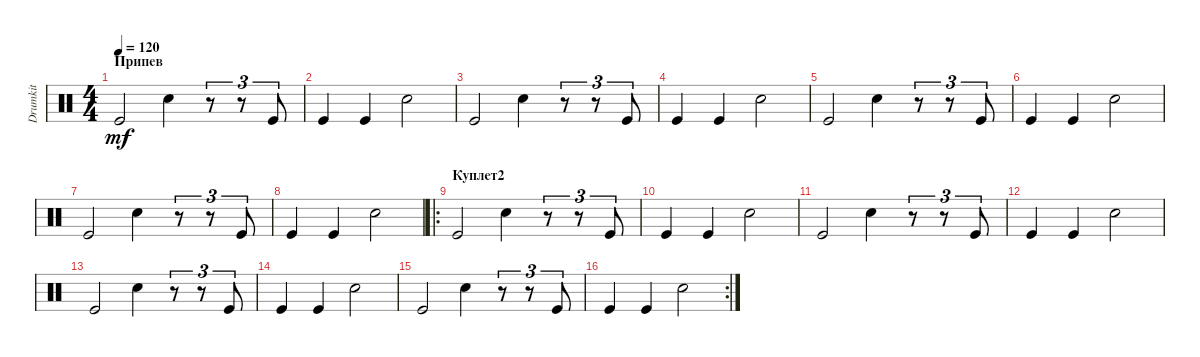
\track ("Drumkit" "Drumkit") {instrument percussion}
\staff {score}
\articulation defaults
\ts (4 4)
\section ("" "Припев")
\tempo 120
\clef neutral
\ks c "Kick (hit)".2{dy mf} "Snare (hit) 2".4
r.8{tu (3 2)} r.8{tu (3 2)} "Kick (hit)".8{tu (3 2)} |
"Kick (hit)".4 "Kick (hit)".4 "Snare (hit) 2".2 |
"Kick (hit)".2 "Snare (hit) 2".4 r.8{tu (3 2)} r.8{tu (3 2)} "Kick (hit)".8{tu (3 2)} |
"Kick (hit)".4 "Kick (hit)".4 "Snare (hit) 2".2 |
"Kick (hit)".2 "Snare (hit) 2".4 r.8{tu (3 2)} r.8{tu (3 2)} "Kick (hit)".8{tu (3 2)} |
"Kick (hit)".4 "Kick (hit)".4 "Snare (hit) 2".2 |
"Kick (hit)".2 "Snare (hit) 2".4 r.8{tu (3 2)} r.8{tu (3 2)} "Kick (hit)".8{tu (3 2)} |
"Kick (hit)".4 "Kick (hit)".4 "Snare (hit) 2".2 |
\ro
\section ("" "Куплет2")
"Kick (hit)".2 "Snare (hit) 2".4 r.8{tu (3 2)} r.8{tu (3 2)} "Kick (hit)".8{tu (3 2)} |
"Kick (hit)".4 "Kick (hit)".4 "Snare (hit) 2".2 |
"Kick (hit)".2 "Snare (hit) 2".4 r.8{tu (3 2)} r.8{tu (3 2)} "Kick (hit)".8{tu (3 2)} |
"Kick (hit)".4 "Kick (hit)".4 "Snare (hit) 2".2 |
"Kick (hit)".2 "Snare (hit) 2".4 r.8{tu (3 2)} r.8{tu (3 2)} "Kick (hit)".8{tu (3 2)} |
"Kick (hit)".4 "Kick (hit)".4 "Snare (hit) 2".2 |
"Kick (hit)".2 "Snare (hit) 2".4 r.8{tu (3 2)} r.8{tu (3 2)} "Kick (hit)".8{tu (3 2)} |
\rc 2 "Kick (hit)".4 "Kick (hit)".4 "Snare (hit) 2".2
